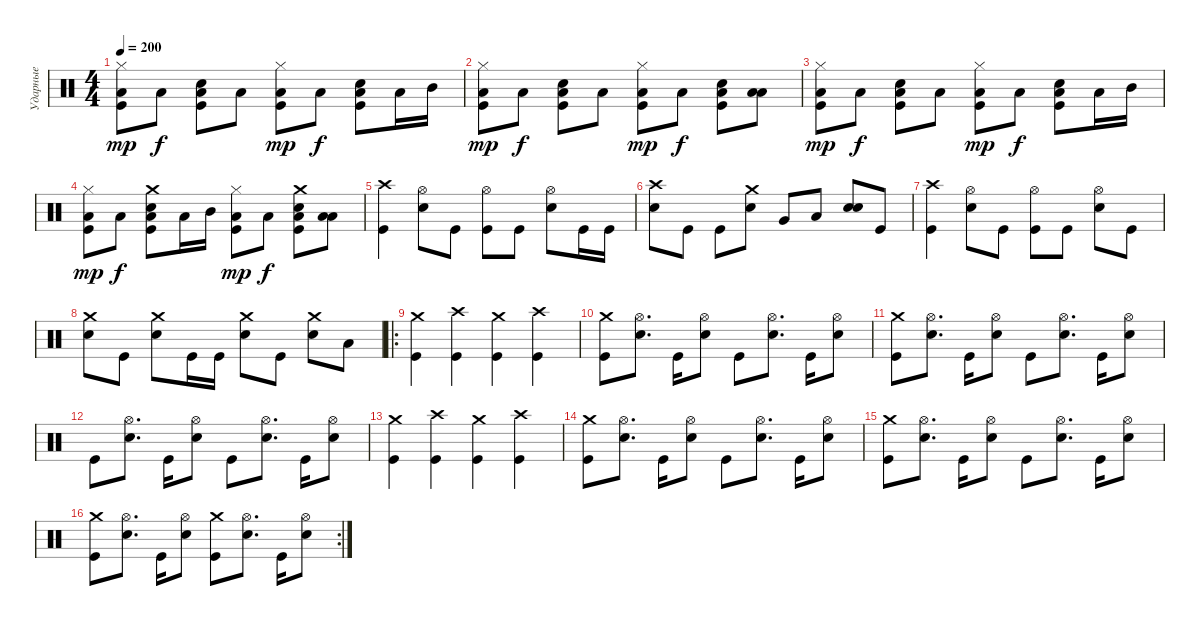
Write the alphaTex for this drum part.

\track ("Ударные" "Ударные") {instrument percussion}
\staff {score}
\articulation defaults
\ts (4 4)
\tempo 200
\clef neutral
\ks c
("Low Floor Tom (hit)" "Kick (hit)" "Hi-Hat (closed)").8{dy mp} "Low Floor Tom (hit)".8{dy f} ("Snare (hit) 2" "Low Floor Tom (hit)" "Kick (hit)").8 "Low Floor Tom (hit)".8 ("Low Floor Tom (hit)" "Kick (hit)" "Hi-Hat (closed)").8{dy mp} "Low Floor Tom (hit)".8{dy f} ("Snare (hit) 2" "Low Floor Tom (hit)" "Kick (hit)").8 "Low Floor Tom (hit)".16 "Mid Tom (hit)".16 |
("Low Floor Tom (hit)" "Kick (hit)" "Hi-Hat (closed)").8{dy mp} "Low Floor Tom (hit)".8{dy f} ("Snare (hit) 2" "Low Floor Tom (hit)" "Kick (hit)").8 "Low Floor Tom (hit)".8 ("Low Floor Tom (hit)" "Kick (hit)" "Hi-Hat (closed)").8{dy mp} "Low Floor Tom (hit)".8{dy f} ("Snare (hit) 2" "Low Floor Tom (hit)" "Kick (hit)").8 ("Low Tom (hit)" "Low Floor Tom (hit)").8 |
("Low Floor Tom (hit)" "Kick (hit)" "Hi-Hat (closed)").8{dy mp} "Low Floor Tom (hit)".8{dy f} ("Snare (hit) 2" "Low Floor Tom (hit)" "Kick (hit)").8 "Low Floor Tom (hit)".8 ("Low Floor Tom (hit)" "Kick (hit)" "Hi-Hat (closed)").8{dy mp} "Low Floor Tom (hit)".8{dy f} ("Snare (hit) 2" "Low Floor Tom (hit)" "Kick (hit)").8 "Low Floor Tom (hit)".16 "Mid Tom (hit)".16 |
("Low Floor Tom (hit)" "Kick (hit)" "Hi-Hat (closed)").8{dy mp} "Low Floor Tom (hit)".8{dy f} ("Crash medium (hit)" "Snare (hit) 2" "Low Floor Tom (hit)" "Kick (hit)").8 "Low Floor Tom (hit)".16 "Mid Tom (hit)".16 ("Low Floor Tom (hit)" "Kick (hit)" "Hi-Hat (closed)").8{dy mp} "Low Floor Tom (hit)".8{dy f} ("Crash medium (hit)" "Snare (hit) 2" "Low Floor Tom (hit)" "Kick (hit)").8 ("Low Tom (hit)" "Low Floor Tom (hit)").8 |
("Crash high (hit)" "Kick (hit)").4 ("Hi-Hat (open)" "Snare (hit) 2").8 "Kick (hit)".8 ("Hi-Hat (open)" "Kick (hit)").8 "Kick (hit)".8 ("Hi-Hat (open)" "Snare (hit) 2").8 "Kick (hit)".16 "Kick (hit)".16 |
("Crash high (hit)" "Snare (hit) 2").8 "Kick (hit)".8 "Kick (hit)".8 ("Crash medium (hit)" "Snare (hit) 2").8 "Very Low Tom (hit)".8 "Low Floor Tom (hit)".8 ("Snare (hit) 2" "Snare (hit) 2").8{bd 480} "Kick (hit)".8 |
("Crash high (hit)" "Kick (hit)").4 ("Hi-Hat (open)" "Snare (hit) 2").8 "Kick (hit)".8 ("Hi-Hat (open)" "Kick (hit)").8 "Kick (hit)".8 ("Hi-Hat (open)" "Snare (hit) 2").8 "Kick (hit)".8 |
("Crash medium (hit)" "Snare (hit) 2").8 "Kick (hit)".8 ("Crash medium (hit)" "Snare (hit) 2").8 "Kick (hit)".16 "Kick (hit)".16 ("Crash medium (hit)" "Snare (hit) 2").8 "Kick (hit)".8 ("Crash medium (hit)" "Snare (hit) 2").8 "Low Floor Tom (hit)".8 |
\ro
("Kick (hit)" "Crash medium (hit)").4 ("Kick (hit)" "Crash high (hit)").4 ("Kick (hit)" "Crash medium (hit)").4 ("Kick (hit)" "Crash high (hit)").4 |
("Crash medium (hit)" "Kick (hit)").8 ("Hi-Hat (open)" "Snare (hit) 2").8{d} "Kick (hit)".16 ("Hi-Hat (open)" "Snare (hit) 2").8 "Kick (hit)".8 ("Hi-Hat (open)" "Snare (hit) 2").8{d} "Kick (hit)".16 ("Hi-Hat (open)" "Snare (hit) 2").8 |
("Crash medium (hit)" "Kick (hit)").8 ("Hi-Hat (open)" "Snare (hit) 2").8{d} "Kick (hit)".16 ("Hi-Hat (open)" "Snare (hit) 2").8 "Kick (hit)".8 ("Hi-Hat (open)" "Snare (hit) 2").8{d} "Kick (hit)".16 ("Hi-Hat (open)" "Snare (hit) 2").8 |
"Kick (hit)".8 ("Hi-Hat (open)" "Snare (hit) 2").8{d} "Kick (hit)".16 ("Hi-Hat (open)" "Snare (hit) 2").8 "Kick (hit)".8 ("Hi-Hat (open)" "Snare (hit) 2").8{d} "Kick (hit)".16 ("Hi-Hat (open)" "Snare (hit) 2").8 |
("Kick (hit)" "Crash medium (hit)").4 ("Kick (hit)" "Crash high (hit)").4 ("Kick (hit)" "Crash medium (hit)").4 ("Kick (hit)" "Crash high (hit)").4 |
("Crash medium (hit)" "Kick (hit)").8 ("Hi-Hat (open)" "Snare (hit) 2").8{d} "Kick (hit)".16 ("Hi-Hat (open)" "Snare (hit) 2").8 "Kick (hit)".8 ("Hi-Hat (open)" "Snare (hit) 2").8{d} "Kick (hit)".16 ("Hi-Hat (open)" "Snare (hit) 2").8 |
("Crash medium (hit)" "Kick (hit)").8 ("Hi-Hat (open)" "Snare (hit) 2").8{d} "Kick (hit)".16 ("Hi-Hat (open)" "Snare (hit) 2").8 "Kick (hit)".8 ("Hi-Hat (open)" "Snare (hit) 2").8{d} "Kick (hit)".16 ("Hi-Hat (open)" "Snare (hit) 2").8 |
\rc 2
("Crash medium (hit)" "Kick (hit)").8 ("Hi-Hat (open)" "Snare (hit) 2").8{d} "Kick (hit)".16 ("Hi-Hat (open)" "Snare (hit) 2").8 ("Crash medium (hit)" "Kick (hit)").8 ("Hi-Hat (open)" "Snare (hit) 2").8{d} "Kick (hit)".16 ("Hi-Hat (open)" "Snare (hit) 2").8
